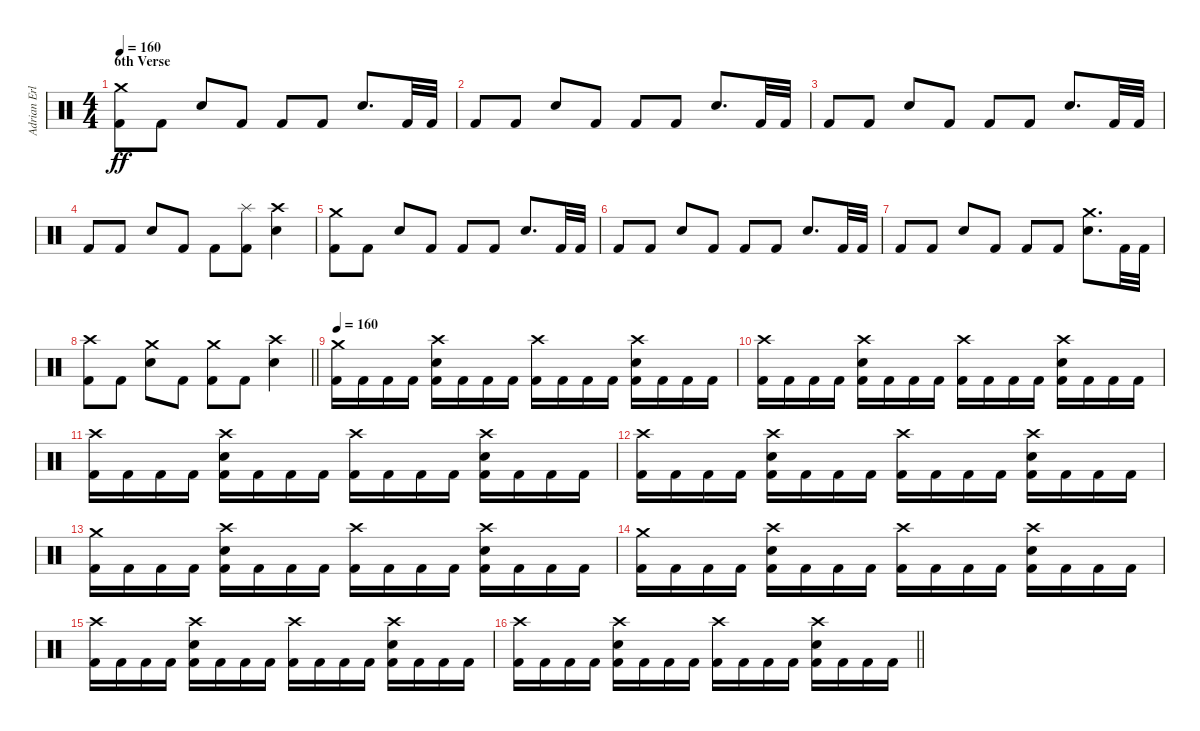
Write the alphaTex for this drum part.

\track ("Adrian Erlandsson" "Adrian Erl") {instrument percussion}
\staff {score}
\articulation defaults
\ts (4 4)
\section ("" "6th Verse")
\tempo 160
\clef neutral
\ks c
("Kick (hit) 2" "Crash medium (hit)").8{dy ff} "Kick (hit) 2".8 "Electric Snare (hit)".8 "Kick (hit) 2".8 "Kick (hit) 2".8 "Kick (hit) 2".8 "Electric Snare (hit)".8{d} "Kick (hit) 2".32 "Kick (hit) 2".32 |
"Kick (hit) 2".8 "Kick (hit) 2".8 "Electric Snare (hit)".8 "Kick (hit) 2".8 "Kick (hit) 2".8 "Kick (hit) 2".8 "Electric Snare (hit)".8{d} "Kick (hit) 2".32 "Kick (hit) 2".32 |
"Kick (hit) 2".8 "Kick (hit) 2".8 "Electric Snare (hit)".8 "Kick (hit) 2".8 "Kick (hit) 2".8 "Kick (hit) 2".8 "Electric Snare (hit)".8{d} "Kick (hit) 2".32 "Kick (hit) 2".32 |
"Kick (hit) 2".8 "Kick (hit) 2".8 "Electric Snare (hit)".8 "Kick (hit) 2".8 "Kick (hit) 2".8 ("Kick (hit) 2" "Splash (hit)").8 ("Electric Snare (hit)" "Crash high (hit)").4 |
("Kick (hit) 2" "Crash medium (hit)").8 "Kick (hit) 2".8 "Electric Snare (hit)".8 "Kick (hit) 2".8 "Kick (hit) 2".8 "Kick (hit) 2".8 "Electric Snare (hit)".8{d} "Kick (hit) 2".32 "Kick (hit) 2".32 |
"Kick (hit) 2".8 "Kick (hit) 2".8 "Electric Snare (hit)".8 "Kick (hit) 2".8 "Kick (hit) 2".8 "Kick (hit) 2".8 "Electric Snare (hit)".8{d} "Kick (hit) 2".32 "Kick (hit) 2".32 |
"Kick (hit) 2".8 "Kick (hit) 2".8 "Electric Snare (hit)".8 "Kick (hit) 2".8 "Kick (hit) 2".8 "Kick (hit) 2".8 ("Electric Snare (hit)" "Crash medium (hit)").8{d} "Kick (hit) 2".32 "Kick (hit) 2".32 |
\barLineRight lightlight
("Kick (hit) 2" "Crash high (hit)").8 "Kick (hit) 2".8 ("Electric Snare (hit)" "Crash medium (hit)").8 "Kick (hit) 2".8 ("Kick (hit) 2" "Crash medium (hit)").8 "Kick (hit) 2".8 ("Electric Snare (hit)" "Crash high (hit)").4 |
\tempo 160
("Kick (hit) 2" "Crash medium (hit)").16 "Kick (hit) 2".16 "Kick (hit) 2".16 "Kick (hit) 2".16 ("Kick (hit) 2" "Electric Snare (hit)" "Crash high (hit)").16 "Kick (hit) 2".16 "Kick (hit) 2".16 "Kick (hit) 2".16 ("Kick (hit) 2" "Crash high (hit)").16 "Kick (hit) 2".16 "Kick (hit) 2".16 "Kick (hit) 2".16 ("Kick (hit) 2" "Electric Snare (hit)" "Crash high (hit)").16 "Kick (hit) 2".16 "Kick (hit) 2".16 "Kick (hit) 2".16 |
("Kick (hit) 2" "Crash high (hit)").16 "Kick (hit) 2".16 "Kick (hit) 2".16 "Kick (hit) 2".16 ("Kick (hit) 2" "Electric Snare (hit)" "Crash high (hit)").16 "Kick (hit) 2".16 "Kick (hit) 2".16 "Kick (hit) 2".16 ("Kick (hit) 2" "Crash high (hit)").16 "Kick (hit) 2".16 "Kick (hit) 2".16 "Kick (hit) 2".16 ("Kick (hit) 2" "Electric Snare (hit)" "Crash high (hit)").16 "Kick (hit) 2".16 "Kick (hit) 2".16 "Kick (hit) 2".16 |
("Kick (hit) 2" "Crash high (hit)").16 "Kick (hit) 2".16 "Kick (hit) 2".16 "Kick (hit) 2".16 ("Kick (hit) 2" "Electric Snare (hit)" "Crash high (hit)").16 "Kick (hit) 2".16 "Kick (hit) 2".16 "Kick (hit) 2".16 ("Kick (hit) 2" "Crash high (hit)").16 "Kick (hit) 2".16 "Kick (hit) 2".16 "Kick (hit) 2".16 ("Kick (hit) 2" "Electric Snare (hit)" "Crash high (hit)").16 "Kick (hit) 2".16 "Kick (hit) 2".16 "Kick (hit) 2".16 |
("Kick (hit) 2" "Crash high (hit)").16 "Kick (hit) 2".16 "Kick (hit) 2".16 "Kick (hit) 2".16 ("Kick (hit) 2" "Electric Snare (hit)" "Crash high (hit)").16 "Kick (hit) 2".16 "Kick (hit) 2".16 "Kick (hit) 2".16 ("Kick (hit) 2" "Crash high (hit)").16 "Kick (hit) 2".16 "Kick (hit) 2".16 "Kick (hit) 2".16 ("Kick (hit) 2" "Electric Snare (hit)" "Crash high (hit)").16 "Kick (hit) 2".16 "Kick (hit) 2".16 "Kick (hit) 2".16 |
("Kick (hit) 2" "Crash medium (hit)").16 "Kick (hit) 2".16 "Kick (hit) 2".16 "Kick (hit) 2".16 ("Kick (hit) 2" "Electric Snare (hit)" "Crash high (hit)").16 "Kick (hit) 2".16 "Kick (hit) 2".16 "Kick (hit) 2".16 ("Kick (hit) 2" "Crash high (hit)").16 "Kick (hit) 2".16 "Kick (hit) 2".16 "Kick (hit) 2".16 ("Kick (hit) 2" "Electric Snare (hit)" "Crash high (hit)").16 "Kick (hit) 2".16 "Kick (hit) 2".16 "Kick (hit) 2".16 |
("Kick (hit) 2" "Crash medium (hit)").16 "Kick (hit) 2".16 "Kick (hit) 2".16 "Kick (hit) 2".16 ("Kick (hit) 2" "Electric Snare (hit)" "Crash high (hit)").16 "Kick (hit) 2".16 "Kick (hit) 2".16 "Kick (hit) 2".16 ("Kick (hit) 2" "Crash high (hit)").16 "Kick (hit) 2".16 "Kick (hit) 2".16 "Kick (hit) 2".16 ("Kick (hit) 2" "Electric Snare (hit)" "Crash high (hit)").16 "Kick (hit) 2".16 "Kick (hit) 2".16 "Kick (hit) 2".16 |
("Kick (hit) 2" "Crash high (hit)").16 "Kick (hit) 2".16 "Kick (hit) 2".16 "Kick (hit) 2".16 ("Kick (hit) 2" "Electric Snare (hit)" "Crash high (hit)").16 "Kick (hit) 2".16 "Kick (hit) 2".16 "Kick (hit) 2".16 ("Kick (hit) 2" "Crash high (hit)").16 "Kick (hit) 2".16 "Kick (hit) 2".16 "Kick (hit) 2".16 ("Kick (hit) 2" "Electric Snare (hit)" "Crash high (hit)").16 "Kick (hit) 2".16 "Kick (hit) 2".16 "Kick (hit) 2".16 |
\barLineRight lightlight
("Kick (hit) 2" "Crash high (hit)").16 "Kick (hit) 2".16 "Kick (hit) 2".16 "Kick (hit) 2".16 ("Kick (hit) 2" "Electric Snare (hit)" "Crash high (hit)").16 "Kick (hit) 2".16 "Kick (hit) 2".16 "Kick (hit) 2".16 ("Kick (hit) 2" "Crash high (hit)").16 "Kick (hit) 2".16 "Kick (hit) 2".16 "Kick (hit) 2".16 ("Kick (hit) 2" "Electric Snare (hit)" "Crash high (hit)").16 "Kick (hit) 2".16 "Kick (hit) 2".16 "Kick (hit) 2".16
